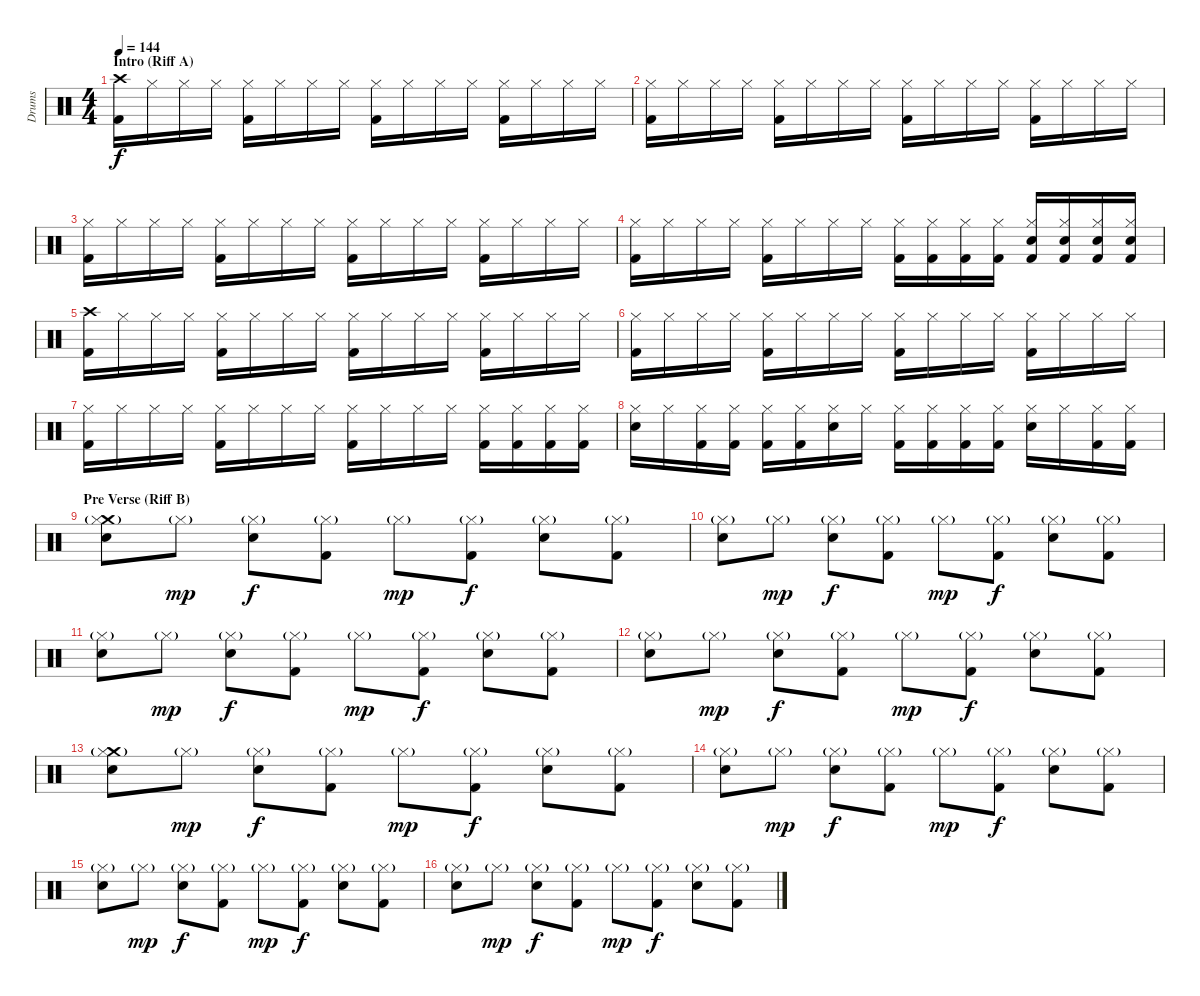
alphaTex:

\track ("Drums" "Drums") {instrument percussion}
\staff {score}
\articulation defaults
\ts (4 4)
\section ("" "Intro (Riff A)")
\tempo 144
\clef neutral
\ks c
("Crash high (hit)" "Kick (hit) 2").16{dy f} "Hi-Hat (closed)".16 "Hi-Hat (closed)".16 "Hi-Hat (closed)".16 ("Hi-Hat (closed)" "Kick (hit) 2").16 "Hi-Hat (closed)".16 "Hi-Hat (closed)".16 "Hi-Hat (closed)".16 ("Hi-Hat (closed)" "Kick (hit) 2").16 "Hi-Hat (closed)".16 "Hi-Hat (closed)".16 "Hi-Hat (closed)".16 ("Hi-Hat (closed)" "Kick (hit) 2").16 "Hi-Hat (closed)".16 "Hi-Hat (closed)".16 "Hi-Hat (closed)".16 |
("Hi-Hat (closed)" "Kick (hit) 2").16 "Hi-Hat (closed)".16 "Hi-Hat (closed)".16 "Hi-Hat (closed)".16 ("Hi-Hat (closed)" "Kick (hit) 2").16 "Hi-Hat (closed)".16 "Hi-Hat (closed)".16 "Hi-Hat (closed)".16 ("Hi-Hat (closed)" "Kick (hit) 2").16 "Hi-Hat (closed)".16 "Hi-Hat (closed)".16 "Hi-Hat (closed)".16 ("Hi-Hat (closed)" "Kick (hit) 2").16 "Hi-Hat (closed)".16 "Hi-Hat (closed)".16 "Hi-Hat (closed)".16 |
("Hi-Hat (closed)" "Kick (hit) 2").16 "Hi-Hat (closed)".16 "Hi-Hat (closed)".16 "Hi-Hat (closed)".16 ("Hi-Hat (closed)" "Kick (hit) 2").16 "Hi-Hat (closed)".16 "Hi-Hat (closed)".16 "Hi-Hat (closed)".16 ("Hi-Hat (closed)" "Kick (hit) 2").16 "Hi-Hat (closed)".16 "Hi-Hat (closed)".16 "Hi-Hat (closed)".16 ("Hi-Hat (closed)" "Kick (hit) 2").16 "Hi-Hat (closed)".16 "Hi-Hat (closed)".16 "Hi-Hat (closed)".16 |
("Hi-Hat (closed)" "Kick (hit) 2").16 "Hi-Hat (closed)".16 "Hi-Hat (closed)".16 "Hi-Hat (closed)".16 ("Hi-Hat (closed)" "Kick (hit) 2").16 "Hi-Hat (closed)".16 "Hi-Hat (closed)".16 "Hi-Hat (closed)".16 ("Hi-Hat (closed)" "Kick (hit) 2").16 ("Hi-Hat (closed)" "Kick (hit) 2").16 ("Hi-Hat (closed)" "Kick (hit) 2").16 ("Hi-Hat (closed)" "Kick (hit) 2").16 ("Hi-Hat (closed)" "Snare (hit) 2" "Kick (hit) 2").16 ("Hi-Hat (closed)" "Snare (hit) 2" "Kick (hit) 2").16 ("Hi-Hat (closed)" "Snare (hit) 2" "Kick (hit) 2").16 ("Hi-Hat (closed)" "Snare (hit) 2" "Kick (hit) 2").16 |
("Crash high (hit)" "Kick (hit) 2").16 "Hi-Hat (closed)".16 "Hi-Hat (closed)".16 "Hi-Hat (closed)".16 ("Hi-Hat (closed)" "Kick (hit) 2").16 "Hi-Hat (closed)".16 "Hi-Hat (closed)".16 "Hi-Hat (closed)".16 ("Hi-Hat (closed)" "Kick (hit) 2").16 "Hi-Hat (closed)".16 "Hi-Hat (closed)".16 "Hi-Hat (closed)".16 ("Hi-Hat (closed)" "Kick (hit) 2").16 "Hi-Hat (closed)".16 "Hi-Hat (closed)".16 "Hi-Hat (closed)".16 |
("Hi-Hat (closed)" "Kick (hit) 2").16 "Hi-Hat (closed)".16 "Hi-Hat (closed)".16 "Hi-Hat (closed)".16 ("Hi-Hat (closed)" "Kick (hit) 2").16 "Hi-Hat (closed)".16 "Hi-Hat (closed)".16 "Hi-Hat (closed)".16 ("Hi-Hat (closed)" "Kick (hit) 2").16 "Hi-Hat (closed)".16 "Hi-Hat (closed)".16 "Hi-Hat (closed)".16 ("Hi-Hat (closed)" "Kick (hit) 2").16 "Hi-Hat (closed)".16 "Hi-Hat (closed)".16 "Hi-Hat (closed)".16 |
("Hi-Hat (closed)" "Kick (hit) 2").16 "Hi-Hat (closed)".16 "Hi-Hat (closed)".16 "Hi-Hat (closed)".16 ("Hi-Hat (closed)" "Kick (hit) 2").16 "Hi-Hat (closed)".16 "Hi-Hat (closed)".16 "Hi-Hat (closed)".16 ("Hi-Hat (closed)" "Kick (hit) 2").16 "Hi-Hat (closed)".16 "Hi-Hat (closed)".16 "Hi-Hat (closed)".16 ("Hi-Hat (closed)" "Kick (hit) 2").16 ("Hi-Hat (closed)" "Kick (hit) 2").16 ("Hi-Hat (closed)" "Kick (hit) 2").16 ("Hi-Hat (closed)" "Kick (hit) 2").16 |
("Hi-Hat (closed)" "Snare (hit) 2").16 "Hi-Hat (closed)".16 ("Hi-Hat (closed)" "Kick (hit) 2").16 ("Hi-Hat (closed)" "Kick (hit) 2").16 ("Hi-Hat (closed)" "Kick (hit) 2").16 ("Hi-Hat (closed)" "Kick (hit) 2").16 ("Hi-Hat (closed)" "Snare (hit) 2").16 "Hi-Hat (closed)".16 ("Hi-Hat (closed)" "Kick (hit) 2").16 ("Hi-Hat (closed)" "Kick (hit) 2").16 ("Hi-Hat (closed)" "Kick (hit) 2").16 ("Hi-Hat (closed)" "Kick (hit) 2").16 ("Hi-Hat (closed)" "Snare (hit) 2").16 "Hi-Hat (closed)".16 ("Hi-Hat (closed)" "Kick (hit) 2").16 ("Hi-Hat (closed)" "Kick (hit) 2").16 |
\section ("" "Pre Verse (Riff B)")
("Crash medium (hit)" "Hi-Hat (closed)"{g} "Electric Snare (hit)").8 "Hi-Hat (closed)"{g}.8{dy mp} ("Hi-Hat (closed)"{g} "Electric Snare (hit)").8{dy f} ("Hi-Hat (closed)"{g} "Kick (hit) 2").8 "Hi-Hat (closed)"{g}.8{dy mp} ("Hi-Hat (closed)"{g} "Kick (hit) 2").8{dy f} ("Hi-Hat (closed)"{g} "Electric Snare (hit)").8 ("Hi-Hat (closed)"{g} "Kick (hit) 2").8 |
("Hi-Hat (closed)"{g} "Electric Snare (hit)").8 "Hi-Hat (closed)"{g}.8{dy mp} ("Hi-Hat (closed)"{g} "Electric Snare (hit)").8{dy f} ("Hi-Hat (closed)"{g} "Kick (hit) 2").8 "Hi-Hat (closed)"{g}.8{dy mp} ("Hi-Hat (closed)"{g} "Kick (hit) 2").8{dy f} ("Hi-Hat (closed)"{g} "Electric Snare (hit)").8 ("Hi-Hat (closed)"{g} "Kick (hit) 2").8 |
("Hi-Hat (closed)"{g} "Electric Snare (hit)").8 "Hi-Hat (closed)"{g}.8{dy mp} ("Hi-Hat (closed)"{g} "Electric Snare (hit)").8{dy f} ("Hi-Hat (closed)"{g} "Kick (hit) 2").8 "Hi-Hat (closed)"{g}.8{dy mp} ("Hi-Hat (closed)"{g} "Kick (hit) 2").8{dy f} ("Hi-Hat (closed)"{g} "Electric Snare (hit)").8 ("Hi-Hat (closed)"{g} "Kick (hit) 2").8 |
("Hi-Hat (closed)"{g} "Electric Snare (hit)").8 "Hi-Hat (closed)"{g}.8{dy mp} ("Hi-Hat (closed)"{g} "Electric Snare (hit)").8{dy f} ("Hi-Hat (closed)"{g} "Kick (hit) 2").8 "Hi-Hat (closed)"{g}.8{dy mp} ("Hi-Hat (closed)"{g} "Kick (hit) 2").8{dy f} ("Hi-Hat (closed)"{g} "Electric Snare (hit)").8 ("Hi-Hat (closed)"{g} "Kick (hit) 2").8 |
("Crash medium (hit)" "Hi-Hat (closed)"{g} "Electric Snare (hit)").8 "Hi-Hat (closed)"{g}.8{dy mp} ("Hi-Hat (closed)"{g} "Electric Snare (hit)").8{dy f} ("Hi-Hat (closed)"{g} "Kick (hit) 2").8 "Hi-Hat (closed)"{g}.8{dy mp} ("Hi-Hat (closed)"{g} "Kick (hit) 2").8{dy f} ("Hi-Hat (closed)"{g} "Electric Snare (hit)").8 ("Hi-Hat (closed)"{g} "Kick (hit) 2").8 |
("Hi-Hat (closed)"{g} "Electric Snare (hit)").8 "Hi-Hat (closed)"{g}.8{dy mp} ("Hi-Hat (closed)"{g} "Electric Snare (hit)").8{dy f} ("Hi-Hat (closed)"{g} "Kick (hit) 2").8 "Hi-Hat (closed)"{g}.8{dy mp} ("Hi-Hat (closed)"{g} "Kick (hit) 2").8{dy f} ("Hi-Hat (closed)"{g} "Electric Snare (hit)").8 ("Hi-Hat (closed)"{g} "Kick (hit) 2").8 |
("Hi-Hat (closed)"{g} "Electric Snare (hit)").8 "Hi-Hat (closed)"{g}.8{dy mp} ("Hi-Hat (closed)"{g} "Electric Snare (hit)").8{dy f} ("Hi-Hat (closed)"{g} "Kick (hit) 2").8 "Hi-Hat (closed)"{g}.8{dy mp} ("Hi-Hat (closed)"{g} "Kick (hit) 2").8{dy f} ("Hi-Hat (closed)"{g} "Electric Snare (hit)").8 ("Hi-Hat (closed)"{g} "Kick (hit) 2").8 |
("Hi-Hat (closed)"{g} "Electric Snare (hit)").8 "Hi-Hat (closed)"{g}.8{dy mp} ("Hi-Hat (closed)"{g} "Electric Snare (hit)").8{dy f} ("Hi-Hat (closed)"{g} "Kick (hit) 2").8 "Hi-Hat (closed)"{g}.8{dy mp} ("Hi-Hat (closed)"{g} "Kick (hit) 2").8{dy f} ("Hi-Hat (closed)"{g} "Electric Snare (hit)").8 ("Hi-Hat (closed)"{g} "Kick (hit) 2").8
